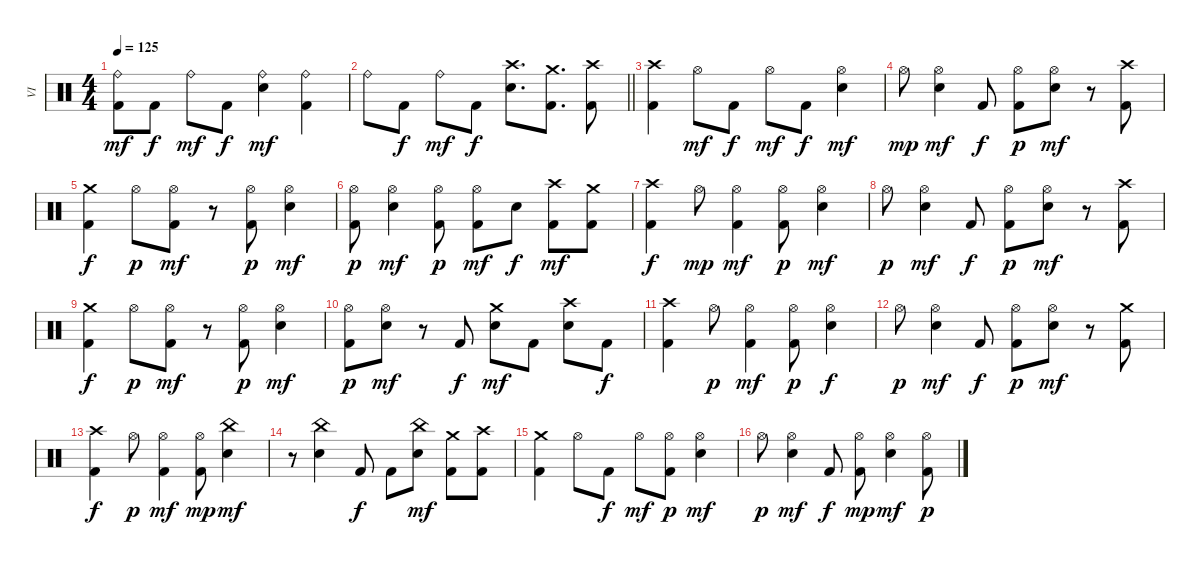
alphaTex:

\track ("VI" "VI") {instrument percussion}
\staff {score}
\articulation defaults
\ts (4 4)
\tempo 125
\clef neutral
\ks c
("Ride (bell)" "Kick (hit) 2").8{dy mf} "Kick (hit) 2".8{dy f} "Ride (bell)".8{dy mf} "Kick (hit) 2".8{dy f} ("Ride (bell)" "Electric Snare (hit)").4{dy mf} ("Ride (bell)" "Kick (hit) 2").4 |
\barLineRight lightlight "Ride (bell)".8 "Kick (hit) 2".8{dy f} "Ride (bell)".8{dy mf} "Kick (hit) 2".8{dy f}
("Crash high (hit)" "Electric Snare (hit)").8{d} ("Crash medium (hit)" "Kick (hit) 2").8{d} ("Crash high (hit)" "Kick (hit) 2").8 |
\section ("" "")
("Crash high (hit)" "Kick (hit) 2").4 "Hi-Hat (open)".8{dy mf} "Kick (hit) 2".8{dy f} "Hi-Hat (open)".8{dy mf} "Kick (hit) 2".8{dy f} ("Hi-Hat (open)" "Electric Snare (hit)").4{dy mf} |
"Hi-Hat (open)".8{dy mp} ("Hi-Hat (open)" "Electric Snare (hit)").4{dy mf} "Kick (hit) 2".8{dy f} ("Hi-Hat (open)" "Kick (hit) 2").8{dy p} ("Hi-Hat (open)" "Electric Snare (hit)").8{dy mf} r.8 ("Crash high (hit)" "Kick (hit) 2").8 |
("Crash medium (hit)" "Kick (hit) 2").4{dy f} "Hi-Hat (open)".8{dy p} ("Hi-Hat (open)" "Kick (hit) 2").8{dy mf} r.8 ("Hi-Hat (open)" "Kick (hit) 2").8{dy p} ("Hi-Hat (open)" "Electric Snare (hit)").4{dy mf} |
("Hi-Hat (open)" "Kick (hit) 2").8{dy p} ("Hi-Hat (open)" "Electric Snare (hit)").4{dy mf} ("Hi-Hat (open)" "Kick (hit) 2").8{dy p} ("Hi-Hat (open)" "Kick (hit) 2").8{dy mf} "Electric Snare (hit)".8{dy f} ("Crash high (hit)" "Kick (hit) 2").8{dy mf} ("Crash medium (hit)" "Kick (hit) 2").8 |
("Crash high (hit)" "Kick (hit) 2").4{dy f} "Hi-Hat (open)".8{dy mp} ("Hi-Hat (open)" "Kick (hit) 2").4{dy mf} ("Hi-Hat (open)" "Kick (hit) 2").8{dy p} ("Hi-Hat (open)" "Electric Snare (hit)").4{dy mf} |
"Hi-Hat (open)".8{dy p} ("Hi-Hat (open)" "Electric Snare (hit)").4{dy mf} "Kick (hit) 2".8{dy f} ("Hi-Hat (open)" "Kick (hit) 2").8{dy p} ("Hi-Hat (open)" "Electric Snare (hit)").8{dy mf} r.8 ("Crash high (hit)" "Kick (hit) 2").8 |
("Crash medium (hit)" "Kick (hit) 2").4{dy f} "Hi-Hat (open)".8{dy p} ("Hi-Hat (open)" "Kick (hit) 2").8{dy mf} r.8 ("Hi-Hat (open)" "Kick (hit) 2").8{dy p} ("Hi-Hat (open)" "Electric Snare (hit)").4{dy mf} |
("Hi-Hat (open)" "Kick (hit) 2").8{dy p} ("Hi-Hat (open)" "Electric Snare (hit)").8{dy mf} r.8 "Kick (hit) 2".8{dy f} ("Crash medium (hit)" "Electric Snare (hit)").8{dy mf} "Kick (hit) 2".8 ("Crash high (hit)" "Electric Snare (hit)").8 "Kick (hit) 2".8{dy f} |
("Crash high (hit)" "Kick (hit) 2").4 "Hi-Hat (open)".8{dy p} ("Hi-Hat (open)" "Kick (hit) 2").4{dy mf} ("Hi-Hat (open)" "Kick (hit) 2").8{dy p} ("Hi-Hat (open)" "Electric Snare (hit)").4{dy f} |
"Hi-Hat (open)".8{dy p} ("Hi-Hat (open)" "Electric Snare (hit)").4{dy mf} "Kick (hit) 2".8{dy f} ("Hi-Hat (open)" "Kick (hit) 2").8{dy p} ("Hi-Hat (open)" "Electric Snare (hit)").8{dy mf} r.8 ("Crash medium (hit)" "Kick (hit) 2").8 |
("Crash high (hit)" "Kick (hit) 2").4{dy f} "Hi-Hat (open)".8{dy p} ("Hi-Hat (open)" "Kick (hit) 2").4{dy mf} ("Hi-Hat (open)" "Kick (hit) 2").8{dy mp} ("China (hit)" "Electric Snare (hit)").4{dy mf} |
r.8 ("China (hit)" "Electric Snare (hit)").4 "Kick (hit) 2".8{dy f} "Kick (hit) 2".8 ("China (hit)" "Electric Snare (hit)").8{dy mf} ("Crash medium (hit)" "Kick (hit) 2").8 ("Crash high (hit)" "Kick (hit) 2").8 |
("Crash medium (hit)" "Kick (hit) 2").4 "Hi-Hat (open)".8 "Kick (hit) 2".8{dy f} "Hi-Hat (open)".8{dy mf} ("Hi-Hat (open)" "Kick (hit) 2").8{dy p} ("Hi-Hat (open)" "Electric Snare (hit)").4{dy mf} |
"Hi-Hat (open)".8{dy p} ("Hi-Hat (open)" "Electric Snare (hit)").4{dy mf} "Kick (hit) 2".8{dy f} ("Hi-Hat (open)" "Kick (hit) 2").8{dy mp} ("Hi-Hat (open)" "Electric Snare (hit)").4{dy mf} ("Hi-Hat (open)" "Kick (hit) 2").8{dy p}
